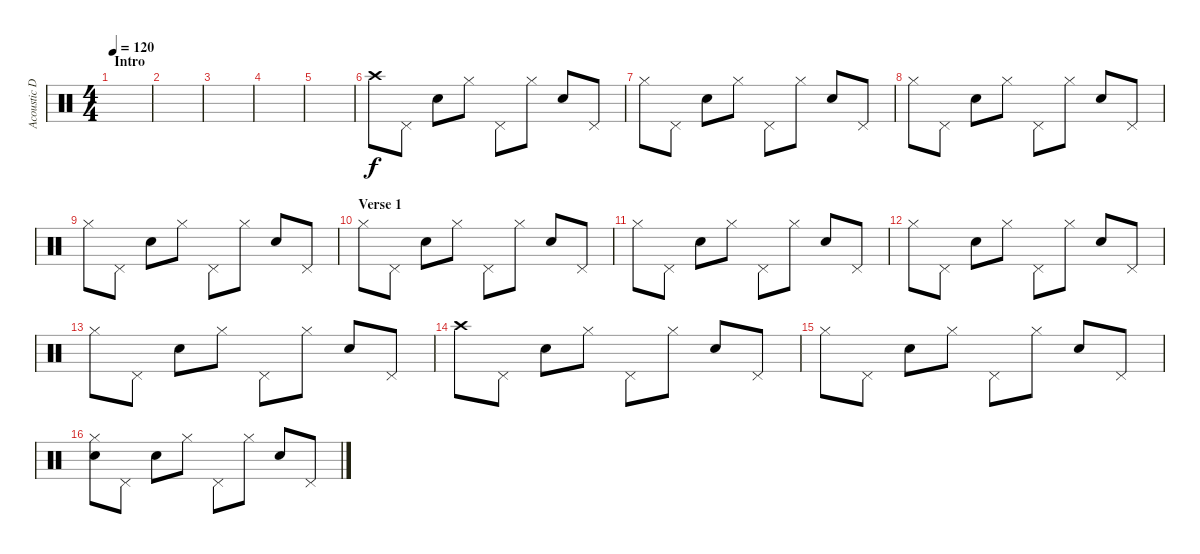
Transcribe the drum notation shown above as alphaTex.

\track ("Acoustic Drums" "Acoustic D") {instrument percussion}
\staff {score}
\articulation defaults
\ts (4 4)
\section ("" "Intro")
\tempo 120
\clef neutral
\ks c
|
|
|
|
|
"Crash high (hit)".8 "Pedal Hi-Hat (hit)".8 "Electric Snare (hit)".8 "Hi-Hat (closed)".8 "Pedal Hi-Hat (hit)".8 "Hi-Hat (closed)".8 "Electric Snare (hit)".8 "Pedal Hi-Hat (hit)".8 |
"Hi-Hat (closed)".8 "Pedal Hi-Hat (hit)".8 "Electric Snare (hit)".8 "Hi-Hat (closed)".8 "Pedal Hi-Hat (hit)".8 "Hi-Hat (closed)".8 "Electric Snare (hit)".8 "Pedal Hi-Hat (hit)".8 |
"Hi-Hat (closed)".8 "Pedal Hi-Hat (hit)".8 "Electric Snare (hit)".8 "Hi-Hat (closed)".8 "Pedal Hi-Hat (hit)".8 "Hi-Hat (closed)".8 "Electric Snare (hit)".8 "Pedal Hi-Hat (hit)".8 |
"Hi-Hat (closed)".8 "Pedal Hi-Hat (hit)".8 "Electric Snare (hit)".8 "Hi-Hat (closed)".8 "Pedal Hi-Hat (hit)".8 "Hi-Hat (closed)".8 "Electric Snare (hit)".8 "Pedal Hi-Hat (hit)".8 |
\section ("" "Verse 1")
"Hi-Hat (closed)".8 "Pedal Hi-Hat (hit)".8 "Electric Snare (hit)".8 "Hi-Hat (closed)".8 "Pedal Hi-Hat (hit)".8 "Hi-Hat (closed)".8 "Electric Snare (hit)".8 "Pedal Hi-Hat (hit)".8 |
"Hi-Hat (closed)".8 "Pedal Hi-Hat (hit)".8 "Electric Snare (hit)".8 "Hi-Hat (closed)".8 "Pedal Hi-Hat (hit)".8 "Hi-Hat (closed)".8 "Electric Snare (hit)".8 "Pedal Hi-Hat (hit)".8 |
"Hi-Hat (closed)".8 "Pedal Hi-Hat (hit)".8 "Electric Snare (hit)".8 "Hi-Hat (closed)".8 "Pedal Hi-Hat (hit)".8 "Hi-Hat (closed)".8 "Electric Snare (hit)".8 "Pedal Hi-Hat (hit)".8 |
"Hi-Hat (closed)".8 "Pedal Hi-Hat (hit)".8 "Electric Snare (hit)".8 "Hi-Hat (closed)".8 "Pedal Hi-Hat (hit)".8 "Hi-Hat (closed)".8 "Electric Snare (hit)".8 "Pedal Hi-Hat (hit)".8 |
"Crash high (hit)".8 "Pedal Hi-Hat (hit)".8 "Electric Snare (hit)".8 "Hi-Hat (closed)".8 "Pedal Hi-Hat (hit)".8 "Hi-Hat (closed)".8 "Electric Snare (hit)".8 "Pedal Hi-Hat (hit)".8 |
"Hi-Hat (closed)".8 "Pedal Hi-Hat (hit)".8 "Electric Snare (hit)".8 "Hi-Hat (closed)".8 "Pedal Hi-Hat (hit)".8 "Hi-Hat (closed)".8 "Electric Snare (hit)".8 "Pedal Hi-Hat (hit)".8 |
("Electric Snare (hit)" "Hi-Hat (closed)").8 "Pedal Hi-Hat (hit)".8 "Electric Snare (hit)".8 "Hi-Hat (closed)".8 "Pedal Hi-Hat (hit)".8 "Hi-Hat (closed)".8 "Electric Snare (hit)".8 "Pedal Hi-Hat (hit)".8
